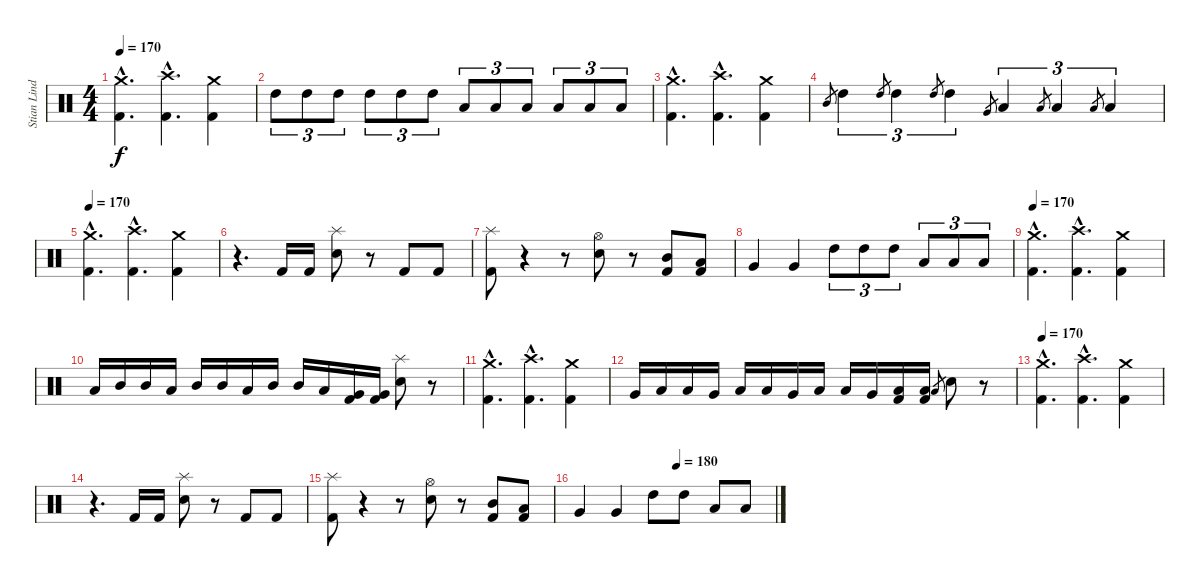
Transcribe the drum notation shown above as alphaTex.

\track ("Stian Lindaas" "Stian Lind") {instrument percussion}
\staff {score}
\articulation defaults
\ts (4 4)
\section ("" "")
\tempo 170
\clef neutral
\ks c
("Crash medium (hit)"{hac} "Kick (hit) 2"{hac}).4{d dy f} ("Crash high (hit)"{hac} "Kick (hit) 2"{hac}).4{d} ("Crash medium (hit)" "Kick (hit) 2").4 |
"High Tom (hit)".8{tu (3 2)} "High Tom (hit)".8{tu (3 2)} "High Tom (hit)".8{tu (3 2)} "High Tom (hit)".8{tu (3 2)} "High Tom (hit)".8{tu (3 2)} "High Tom (hit)".8{tu (3 2)} "Low Tom (hit)".8{tu (3 2)} "Low Tom (hit)".8{tu (3 2)} "Low Tom (hit)".8{tu (3 2)} "Low Tom (hit)".8{tu (3 2)} "Low Tom (hit)".8{tu (3 2)} "Low Tom (hit)".8{tu (3 2)} |
("Crash medium (hit)"{hac} "Kick (hit) 2"{hac}).4{d} ("Crash high (hit)"{hac} "Kick (hit) 2"{hac}).4{d} ("Crash medium (hit)" "Kick (hit) 2").4 |
"Mid Tom (hit)".8{gr} "High Tom (hit)".4{tu (3 2)} "High Tom (hit)".8{gr} "High Tom (hit)".4{tu (3 2)} "High Tom (hit)".8{gr} "High Tom (hit)".4{tu (3 2)} "Very Low Tom (hit)".8{gr} "Low Tom (hit)".4{tu (3 2)} "Low Tom (hit)".8{gr} "Low Tom (hit)".4{tu (3 2)} "Low Tom (hit)".8{gr} "Low Tom (hit)".4{tu (3 2)} |
\tempo 170
("Crash medium (hit)"{hac} "Kick (hit) 2"{hac}).4{d} ("Crash high (hit)"{hac} "Kick (hit) 2"{hac}).4{d} ("Crash medium (hit)" "Kick (hit) 2").4 |
r.4{d} "Kick (hit) 2".16 "Kick (hit) 2".16 ("Splash (hit)" "Electric Snare (hit)").8 r.8 "Kick (hit) 2".8 "Kick (hit) 2".8 |
("Splash (hit)" "Kick (hit) 2").8 r.4 r.8 ("Hi-Hat (open)" "Electric Snare (hit)").8 r.8 ("Mid Tom (hit)" "Kick (hit) 2").8 ("Low Tom (hit)" "Kick (hit) 2").8 |
"Very Low Tom (hit)".4 "Very Low Tom (hit)".4 "High Tom (hit)".8{tu (3 2)} "High Tom (hit)".8{tu (3 2)} "High Tom (hit)".8{tu (3 2)} "Low Tom (hit)".8{tu (3 2)} "Low Tom (hit)".8{tu (3 2)} "Low Tom (hit)".8{tu (3 2)} |
\section ("" "")
\tempo 170
("Crash medium (hit)"{hac} "Kick (hit) 2"{hac}).4{d} ("Crash high (hit)"{hac} "Kick (hit) 2"{hac}).4{d} ("Crash medium (hit)" "Kick (hit) 2").4 |
"Low Tom (hit)".16 "Mid Tom (hit)".16 "Mid Tom (hit)".16 "Low Tom (hit)".16 "Mid Tom (hit)".16 "Mid Tom (hit)".16 "Low Tom (hit)".16 "Mid Tom (hit)".16 "Mid Tom (hit)".16 "Low Tom (hit)".16 ("Very Low Tom (hit)" "Kick (hit) 2").16 ("Very Low Tom (hit)" "Kick (hit) 2").16 ("Splash (hit)" "Electric Snare (hit)").8 r.8 |
("Crash medium (hit)"{hac} "Kick (hit) 2"{hac}).4{d} ("Crash high (hit)"{hac} "Kick (hit) 2"{hac}).4{d} ("Crash medium (hit)" "Kick (hit) 2").4 |
"Very Low Tom (hit)".16 "Low Tom (hit)".16 "Low Tom (hit)".16 "Very Low Tom (hit)".16 "Low Tom (hit)".16 "Low Tom (hit)".16 "Very Low Tom (hit)".16 "Low Tom (hit)".16 "Low Tom (hit)".16 "Very Low Tom (hit)".16 ("Low Floor Tom (hit)" "Kick (hit) 2").16 ("Low Floor Tom (hit)" "Kick (hit) 2").16 "Low Floor Tom (hit)".8{gr} "Electric Snare (hit)".8 r.8 |
\tempo 170
("Crash medium (hit)"{hac} "Kick (hit) 2"{hac}).4{d} ("Crash high (hit)"{hac} "Kick (hit) 2"{hac}).4{d} ("Crash medium (hit)" "Kick (hit) 2").4 |
r.4{d} "Kick (hit) 2".16 "Kick (hit) 2".16 ("Splash (hit)" "Electric Snare (hit)").8 r.8 "Kick (hit) 2".8 "Kick (hit) 2".8 |
("Splash (hit)" "Kick (hit) 2").8 r.4 r.8 ("Hi-Hat (open)" "Electric Snare (hit)").8 r.8 ("Mid Tom (hit)" "Kick (hit) 2").8 ("Low Tom (hit)" "Kick (hit) 2").8 |
\tempo (180 0.5)
"Very Low Tom (hit)".4 "Very Low Tom (hit)".4 "High Tom (hit)".8 "High Tom (hit)".8 "Low Tom (hit)".8 "Low Tom (hit)".8
